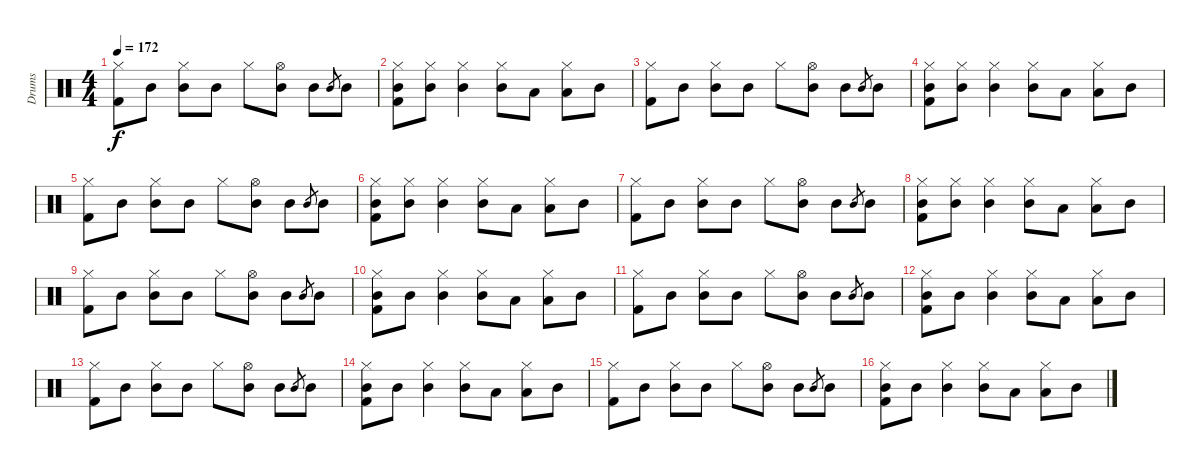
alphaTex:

\track ("Drums" "Drums") {instrument percussion}
\staff {score}
\articulation defaults
\ts (4 4)
\tempo 172
\clef neutral
\ks c
("Hi-Hat (closed)" "Kick (hit) 2").8{dy f} "Mid Tom (hit)".8 ("Hi-Hat (closed)" "Mid Tom (hit)").8 "Mid Tom (hit)".8 "Hi-Hat (closed)".8 ("Hi-Hat (open)" "Mid Tom (hit)").8 "Mid Tom (hit)".8 "Mid Tom (hit)".8{gr} "Mid Tom (hit)".8 |
("Hi-Hat (closed)" "Mid Tom (hit)" "Kick (hit) 2").8 ("Hi-Hat (closed)" "Mid Tom (hit)").8 ("Hi-Hat (closed)" "Mid Tom (hit)").4 ("Hi-Hat (closed)" "Mid Tom (hit)").8 "Low Tom (hit)".8 ("Hi-Hat (closed)" "Low Tom (hit)").8 "Mid Tom (hit)".8 |
("Hi-Hat (closed)" "Kick (hit) 2").8 "Mid Tom (hit)".8 ("Hi-Hat (closed)" "Mid Tom (hit)").8 "Mid Tom (hit)".8 "Hi-Hat (closed)".8 ("Hi-Hat (open)" "Mid Tom (hit)").8 "Mid Tom (hit)".8 "Mid Tom (hit)".8{gr} "Mid Tom (hit)".8 |
("Hi-Hat (closed)" "Mid Tom (hit)" "Kick (hit) 2").8 ("Hi-Hat (closed)" "Mid Tom (hit)").8 ("Hi-Hat (closed)" "Mid Tom (hit)").4 ("Hi-Hat (closed)" "Mid Tom (hit)").8 "Low Tom (hit)".8 ("Hi-Hat (closed)" "Low Tom (hit)").8 "Mid Tom (hit)".8 |
("Hi-Hat (closed)" "Kick (hit) 2").8 "Mid Tom (hit)".8 ("Hi-Hat (closed)" "Mid Tom (hit)").8 "Mid Tom (hit)".8 "Hi-Hat (closed)".8 ("Hi-Hat (open)" "Mid Tom (hit)").8 "Mid Tom (hit)".8 "Mid Tom (hit)".8{gr} "Mid Tom (hit)".8 |
("Hi-Hat (closed)" "Mid Tom (hit)" "Kick (hit) 2").8 ("Hi-Hat (closed)" "Mid Tom (hit)").8 ("Hi-Hat (closed)" "Mid Tom (hit)").4 ("Hi-Hat (closed)" "Mid Tom (hit)").8 "Low Tom (hit)".8 ("Hi-Hat (closed)" "Low Tom (hit)").8 "Mid Tom (hit)".8 |
("Hi-Hat (closed)" "Kick (hit) 2").8 "Mid Tom (hit)".8 ("Hi-Hat (closed)" "Mid Tom (hit)").8 "Mid Tom (hit)".8 "Hi-Hat (closed)".8 ("Hi-Hat (open)" "Mid Tom (hit)").8 "Mid Tom (hit)".8 "Mid Tom (hit)".8{gr} "Mid Tom (hit)".8 |
("Hi-Hat (closed)" "Mid Tom (hit)" "Kick (hit) 2").8 ("Hi-Hat (closed)" "Mid Tom (hit)").8 ("Hi-Hat (closed)" "Mid Tom (hit)").4 ("Hi-Hat (closed)" "Mid Tom (hit)").8 "Low Tom (hit)".8 ("Hi-Hat (closed)" "Low Tom (hit)").8 "Mid Tom (hit)".8 |
("Hi-Hat (closed)" "Kick (hit) 2").8 "Mid Tom (hit)".8 ("Hi-Hat (closed)" "Mid Tom (hit)").8 "Mid Tom (hit)".8 "Hi-Hat (closed)".8 ("Hi-Hat (open)" "Mid Tom (hit)").8 "Mid Tom (hit)".8 "Mid Tom (hit)".8{gr} "Mid Tom (hit)".8 |
("Hi-Hat (closed)" "Mid Tom (hit)" "Kick (hit) 2").8 "Mid Tom (hit)".8 ("Hi-Hat (closed)" "Mid Tom (hit)").4 ("Hi-Hat (closed)" "Mid Tom (hit)").8 "Low Tom (hit)".8 ("Hi-Hat (closed)" "Low Tom (hit)").8 "Mid Tom (hit)".8 |
("Hi-Hat (closed)" "Kick (hit) 2").8 "Mid Tom (hit)".8 ("Hi-Hat (closed)" "Mid Tom (hit)").8 "Mid Tom (hit)".8 "Hi-Hat (closed)".8 ("Hi-Hat (open)" "Mid Tom (hit)").8 "Mid Tom (hit)".8 "Mid Tom (hit)".8{gr} "Mid Tom (hit)".8 |
("Hi-Hat (closed)" "Mid Tom (hit)" "Kick (hit) 2").8 "Mid Tom (hit)".8 ("Hi-Hat (closed)" "Mid Tom (hit)").4 ("Hi-Hat (closed)" "Mid Tom (hit)").8 "Low Tom (hit)".8 ("Hi-Hat (closed)" "Low Tom (hit)").8 "Mid Tom (hit)".8 |
("Hi-Hat (closed)" "Kick (hit) 2").8 "Mid Tom (hit)".8 ("Hi-Hat (closed)" "Mid Tom (hit)").8 "Mid Tom (hit)".8 "Hi-Hat (closed)".8 ("Hi-Hat (open)" "Mid Tom (hit)").8 "Mid Tom (hit)".8 "Mid Tom (hit)".8{gr} "Mid Tom (hit)".8 |
("Hi-Hat (closed)" "Mid Tom (hit)" "Kick (hit) 2").8 "Mid Tom (hit)".8 ("Hi-Hat (closed)" "Mid Tom (hit)").4 ("Hi-Hat (closed)" "Mid Tom (hit)").8 "Low Tom (hit)".8 ("Hi-Hat (closed)" "Low Tom (hit)").8 "Mid Tom (hit)".8 |
("Hi-Hat (closed)" "Kick (hit) 2").8 "Mid Tom (hit)".8 ("Hi-Hat (closed)" "Mid Tom (hit)").8 "Mid Tom (hit)".8 "Hi-Hat (closed)".8 ("Hi-Hat (open)" "Mid Tom (hit)").8 "Mid Tom (hit)".8 "Mid Tom (hit)".8{gr} "Mid Tom (hit)".8 |
("Hi-Hat (closed)" "Mid Tom (hit)" "Kick (hit) 2").8 "Mid Tom (hit)".8 ("Hi-Hat (closed)" "Mid Tom (hit)").4 ("Hi-Hat (closed)" "Mid Tom (hit)").8 "Low Tom (hit)".8 ("Hi-Hat (closed)" "Low Tom (hit)").8 "Mid Tom (hit)".8
